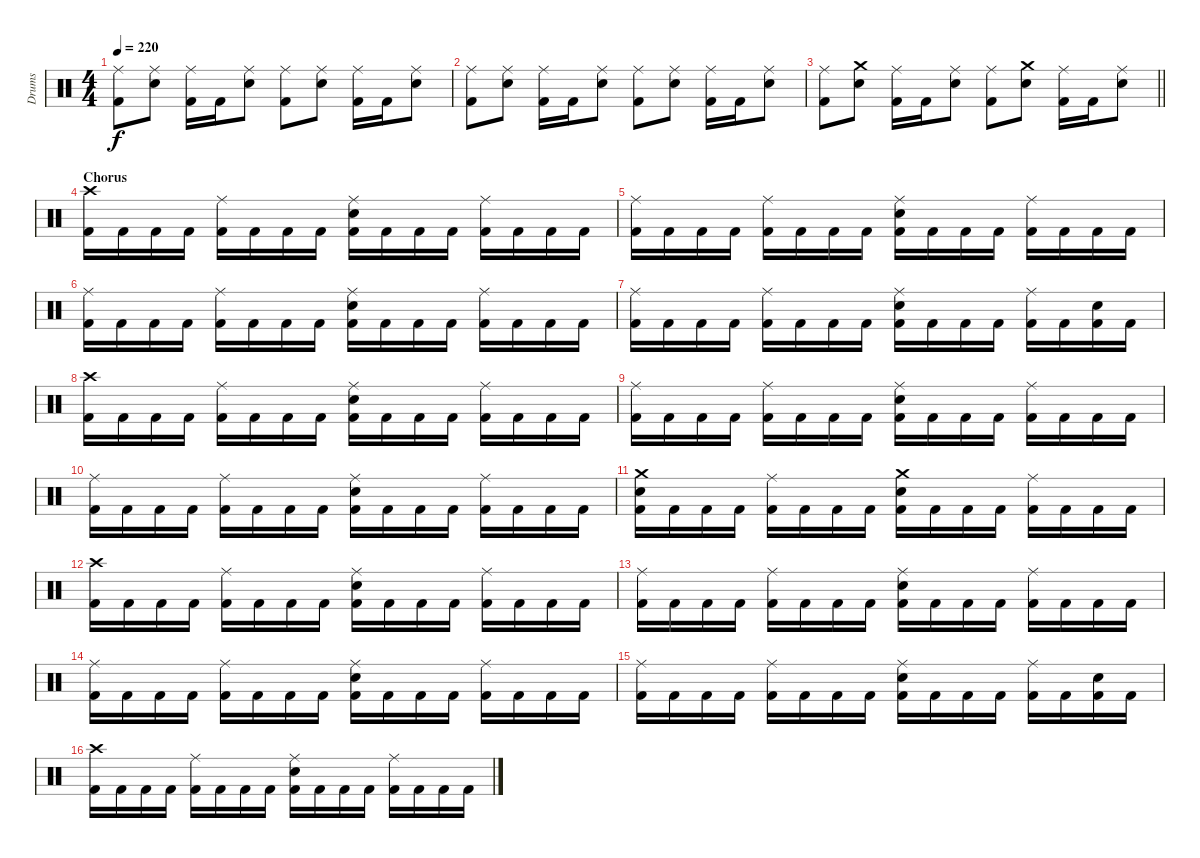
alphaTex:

\track ("Drums" "Drums") {instrument percussion}
\staff {score}
\articulation defaults
\ts (4 4)
\tempo 220
\clef neutral
\ks c
("Ride (middle)" "Kick (hit) 2").8{dy f} ("Ride (middle)" "Snare (hit) 2").8 ("Ride (middle)" "Kick (hit) 2").16 "Kick (hit) 2".16 ("Ride (middle)" "Snare (hit) 2").8 ("Ride (middle)" "Kick (hit) 2").8 ("Ride (middle)" "Snare (hit) 2").8 ("Ride (middle)" "Kick (hit) 2").16 "Kick (hit) 2".16 ("Ride (middle)" "Snare (hit) 2").8 |
("Ride (middle)" "Kick (hit) 2").8 ("Ride (middle)" "Snare (hit) 2").8 ("Ride (middle)" "Kick (hit) 2").16 "Kick (hit) 2".16 ("Ride (middle)" "Snare (hit) 2").8 ("Ride (middle)" "Kick (hit) 2").8 ("Ride (middle)" "Snare (hit) 2").8 ("Ride (middle)" "Kick (hit) 2").16 "Kick (hit) 2".16 ("Ride (middle)" "Snare (hit) 2").8 |
\barLineRight lightlight
("Ride (middle)" "Kick (hit) 2").8 ("Crash medium (hit)" "Snare (hit) 2").8 ("Ride (middle)" "Kick (hit) 2").16 "Kick (hit) 2".16 ("Ride (middle)" "Snare (hit) 2").8 ("Ride (middle)" "Kick (hit) 2").8 ("Crash medium (hit)" "Snare (hit) 2").8 ("Ride (middle)" "Kick (hit) 2").16 "Kick (hit) 2".16 ("Ride (middle)" "Snare (hit) 2").8 |
\section ("" "Chorus")
("Crash high (hit)" "Kick (hit) 2").16 "Kick (hit) 2".16 "Kick (hit) 2".16 "Kick (hit) 2".16 ("Ride (middle)" "Kick (hit) 2").16 "Kick (hit) 2".16 "Kick (hit) 2".16 "Kick (hit) 2".16 ("Ride (middle)" "Snare (hit) 2" "Kick (hit) 2").16 "Kick (hit) 2".16 "Kick (hit) 2".16 "Kick (hit) 2".16 ("Ride (middle)" "Kick (hit) 2").16 "Kick (hit) 2".16 "Kick (hit) 2".16 "Kick (hit) 2".16 |
("Ride (middle)" "Kick (hit) 2").16 "Kick (hit) 2".16 "Kick (hit) 2".16 "Kick (hit) 2".16 ("Ride (middle)" "Kick (hit) 2").16 "Kick (hit) 2".16 "Kick (hit) 2".16 "Kick (hit) 2".16 ("Ride (middle)" "Snare (hit) 2" "Kick (hit) 2").16 "Kick (hit) 2".16 "Kick (hit) 2".16 "Kick (hit) 2".16 ("Ride (middle)" "Kick (hit) 2").16 "Kick (hit) 2".16 "Kick (hit) 2".16 "Kick (hit) 2".16 |
("Ride (middle)" "Kick (hit) 2").16 "Kick (hit) 2".16 "Kick (hit) 2".16 "Kick (hit) 2".16 ("Ride (middle)" "Kick (hit) 2").16 "Kick (hit) 2".16 "Kick (hit) 2".16 "Kick (hit) 2".16 ("Ride (middle)" "Snare (hit) 2" "Kick (hit) 2").16 "Kick (hit) 2".16 "Kick (hit) 2".16 "Kick (hit) 2".16 ("Ride (middle)" "Kick (hit) 2").16 "Kick (hit) 2".16 "Kick (hit) 2".16 "Kick (hit) 2".16 |
("Ride (middle)" "Kick (hit) 2").16 "Kick (hit) 2".16 "Kick (hit) 2".16 "Kick (hit) 2".16 ("Ride (middle)" "Kick (hit) 2").16 "Kick (hit) 2".16 "Kick (hit) 2".16 "Kick (hit) 2".16 ("Ride (middle)" "Snare (hit) 2" "Kick (hit) 2").16 "Kick (hit) 2".16 "Kick (hit) 2".16 "Kick (hit) 2".16 ("Ride (middle)" "Kick (hit) 2").16 "Kick (hit) 2".16 ("Snare (hit) 2" "Kick (hit) 2").16 "Kick (hit) 2".16 |
("Crash high (hit)" "Kick (hit) 2").16 "Kick (hit) 2".16 "Kick (hit) 2".16 "Kick (hit) 2".16 ("Ride (middle)" "Kick (hit) 2").16 "Kick (hit) 2".16 "Kick (hit) 2".16 "Kick (hit) 2".16 ("Ride (middle)" "Snare (hit) 2" "Kick (hit) 2").16 "Kick (hit) 2".16 "Kick (hit) 2".16 "Kick (hit) 2".16 ("Ride (middle)" "Kick (hit) 2").16 "Kick (hit) 2".16 "Kick (hit) 2".16 "Kick (hit) 2".16 |
("Ride (middle)" "Kick (hit) 2").16 "Kick (hit) 2".16 "Kick (hit) 2".16 "Kick (hit) 2".16 ("Ride (middle)" "Kick (hit) 2").16 "Kick (hit) 2".16 "Kick (hit) 2".16 "Kick (hit) 2".16 ("Ride (middle)" "Snare (hit) 2" "Kick (hit) 2").16 "Kick (hit) 2".16 "Kick (hit) 2".16 "Kick (hit) 2".16 ("Ride (middle)" "Kick (hit) 2").16 "Kick (hit) 2".16 "Kick (hit) 2".16 "Kick (hit) 2".16 |
("Ride (middle)" "Kick (hit) 2").16 "Kick (hit) 2".16 "Kick (hit) 2".16 "Kick (hit) 2".16 ("Ride (middle)" "Kick (hit) 2").16 "Kick (hit) 2".16 "Kick (hit) 2".16 "Kick (hit) 2".16 ("Ride (middle)" "Snare (hit) 2" "Kick (hit) 2").16 "Kick (hit) 2".16 "Kick (hit) 2".16 "Kick (hit) 2".16 ("Ride (middle)" "Kick (hit) 2").16 "Kick (hit) 2".16 "Kick (hit) 2".16 "Kick (hit) 2".16 |
("Crash medium (hit)" "Snare (hit) 2" "Kick (hit) 2").16 "Kick (hit) 2".16 "Kick (hit) 2".16 "Kick (hit) 2".16 ("Ride (middle)" "Kick (hit) 2").16 "Kick (hit) 2".16 "Kick (hit) 2".16 "Kick (hit) 2".16 ("Crash medium (hit)" "Snare (hit) 2" "Kick (hit) 2").16 "Kick (hit) 2".16 "Kick (hit) 2".16 "Kick (hit) 2".16 ("Ride (middle)" "Kick (hit) 2").16 "Kick (hit) 2".16 "Kick (hit) 2".16 "Kick (hit) 2".16 |
("Crash high (hit)" "Kick (hit) 2").16 "Kick (hit) 2".16 "Kick (hit) 2".16 "Kick (hit) 2".16 ("Ride (middle)" "Kick (hit) 2").16 "Kick (hit) 2".16 "Kick (hit) 2".16 "Kick (hit) 2".16 ("Ride (middle)" "Snare (hit) 2" "Kick (hit) 2").16 "Kick (hit) 2".16 "Kick (hit) 2".16 "Kick (hit) 2".16 ("Ride (middle)" "Kick (hit) 2").16 "Kick (hit) 2".16 "Kick (hit) 2".16 "Kick (hit) 2".16 |
("Ride (middle)" "Kick (hit) 2").16 "Kick (hit) 2".16 "Kick (hit) 2".16 "Kick (hit) 2".16 ("Ride (middle)" "Kick (hit) 2").16 "Kick (hit) 2".16 "Kick (hit) 2".16 "Kick (hit) 2".16 ("Ride (middle)" "Snare (hit) 2" "Kick (hit) 2").16 "Kick (hit) 2".16 "Kick (hit) 2".16 "Kick (hit) 2".16 ("Ride (middle)" "Kick (hit) 2").16 "Kick (hit) 2".16 "Kick (hit) 2".16 "Kick (hit) 2".16 |
("Ride (middle)" "Kick (hit) 2").16 "Kick (hit) 2".16 "Kick (hit) 2".16 "Kick (hit) 2".16 ("Ride (middle)" "Kick (hit) 2").16 "Kick (hit) 2".16 "Kick (hit) 2".16 "Kick (hit) 2".16 ("Ride (middle)" "Snare (hit) 2" "Kick (hit) 2").16 "Kick (hit) 2".16 "Kick (hit) 2".16 "Kick (hit) 2".16 ("Ride (middle)" "Kick (hit) 2").16 "Kick (hit) 2".16 "Kick (hit) 2".16 "Kick (hit) 2".16 |
("Ride (middle)" "Kick (hit) 2").16 "Kick (hit) 2".16 "Kick (hit) 2".16 "Kick (hit) 2".16 ("Ride (middle)" "Kick (hit) 2").16 "Kick (hit) 2".16 "Kick (hit) 2".16 "Kick (hit) 2".16 ("Ride (middle)" "Snare (hit) 2" "Kick (hit) 2").16 "Kick (hit) 2".16 "Kick (hit) 2".16 "Kick (hit) 2".16 ("Ride (middle)" "Kick (hit) 2").16 "Kick (hit) 2".16 ("Snare (hit) 2" "Kick (hit) 2").16 "Kick (hit) 2".16 |
("Crash high (hit)" "Kick (hit) 2").16 "Kick (hit) 2".16 "Kick (hit) 2".16 "Kick (hit) 2".16 ("Ride (middle)" "Kick (hit) 2").16 "Kick (hit) 2".16 "Kick (hit) 2".16 "Kick (hit) 2".16 ("Ride (middle)" "Snare (hit) 2" "Kick (hit) 2").16 "Kick (hit) 2".16 "Kick (hit) 2".16 "Kick (hit) 2".16 ("Ride (middle)" "Kick (hit) 2").16 "Kick (hit) 2".16 "Kick (hit) 2".16 "Kick (hit) 2".16
